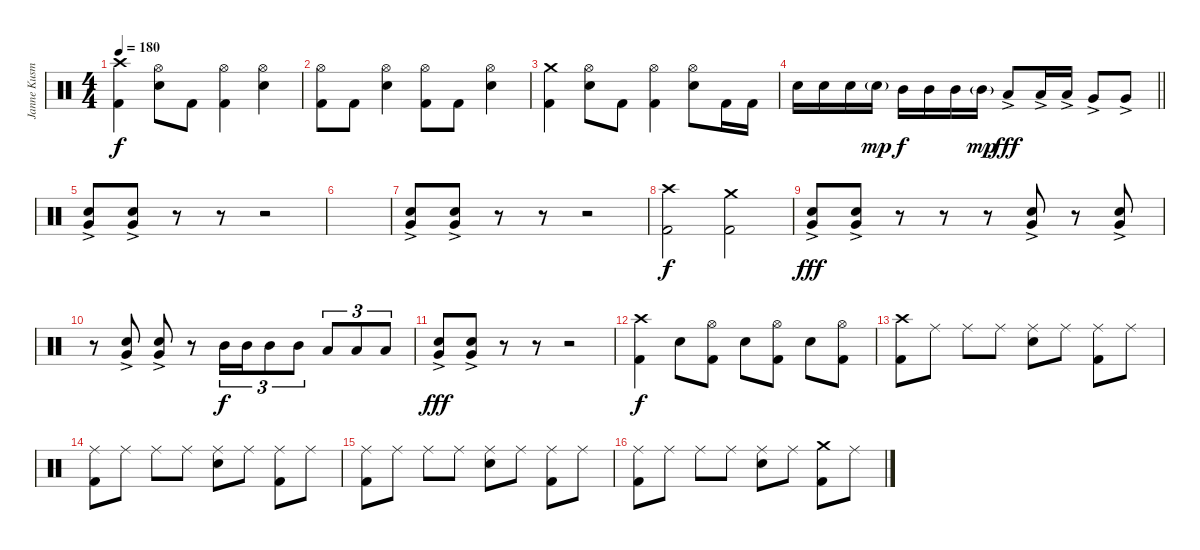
\track ("Janne Kusmin - Drums" "Janne Kusm") {instrument percussion}
\staff {score}
\articulation defaults
\ts (4 4)
\tempo 180
\clef neutral
\ks c
("Crash high (hit)" "Kick (hit) 2").4{dy f} ("Hi-Hat (open)" "Electric Snare (hit)").8 "Kick (hit) 2".8 ("Hi-Hat (open)" "Kick (hit) 2").4 ("Hi-Hat (open)" "Electric Snare (hit)").4 |
("Hi-Hat (open)" "Kick (hit) 2").8 "Kick (hit) 2".8 ("Hi-Hat (open)" "Electric Snare (hit)").4 ("Hi-Hat (open)" "Kick (hit) 2").8 "Kick (hit) 2".8 ("Hi-Hat (open)" "Electric Snare (hit)").4 |
("Crash medium (hit)" "Kick (hit) 2").4 ("Hi-Hat (open)" "Electric Snare (hit)").8 "Kick (hit) 2".8 ("Hi-Hat (open)" "Kick (hit) 2").4 ("Hi-Hat (open)" "Electric Snare (hit)").8 "Kick (hit) 2".16 "Kick (hit) 2".16 |
\barLineRight lightlight "Electric Snare (hit)".16 "Electric Snare (hit)".16 "Electric Snare (hit)".16 "Electric Snare (hit)"{g}.16{dy mp} "Mid Tom (hit)".16{dy f} "Mid Tom (hit)".16 "Mid Tom (hit)".16 "Mid Tom (hit)"{g}.16{dy mp} "Low Tom (hit)"{ac}.8{dy fff} "Low Tom (hit)"{ac}.16 "Low Tom (hit)"{ac}.16 "Very Low Tom (hit)"{ac}.8 "Very Low Tom (hit)"{ac}.8
|
\section ("" "")
("Very Low Tom (hit)"{ac} "Electric Snare (hit)").8 ("Very Low Tom (hit)"{ac} "Electric Snare (hit)").8 r.8 r.8 r.2 |
|
("Very Low Tom (hit)"{ac} "Electric Snare (hit)").8 ("Very Low Tom (hit)"{ac} "Electric Snare (hit)").8 r.8 r.8 r.2 |
("Crash high (hit)" "Kick (hit) 2").2{dy f} ("Crash medium (hit)" "Kick (hit) 2").2 |
("Very Low Tom (hit)"{ac} "Electric Snare (hit)").8{dy fff} ("Very Low Tom (hit)"{ac} "Electric Snare (hit)").8 r.8 r.8 r.8 ("Very Low Tom (hit)"{ac} "Electric Snare (hit)").8 r.8 ("Very Low Tom (hit)"{ac} "Electric Snare (hit)").8 |
r.8 ("Very Low Tom (hit)"{ac} "Electric Snare (hit)").8 ("Very Low Tom (hit)"{ac} "Electric Snare (hit)").8 r.8 "Mid Tom (hit)".16{tu (3 2) dy f} "Mid Tom (hit)".16{tu (3 2)} "Mid Tom (hit)".8{tu (3 2)} "Mid Tom (hit)".8{tu (3 2)} "Low Tom (hit)".8{tu (3 2)} "Low Tom (hit)".8{tu (3 2)} "Low Tom (hit)".8{tu (3 2)} |
("Very Low Tom (hit)"{ac} "Electric Snare (hit)").8{dy fff} ("Very Low Tom (hit)"{ac} "Electric Snare (hit)").8 r.8 r.8 r.2 |
("Crash high (hit)" "Kick (hit) 2").4{dy f} "Electric Snare (hit)".8 ("Hi-Hat (open)" "Kick (hit) 2").8 "Electric Snare (hit)".8 ("Hi-Hat (open)" "Kick (hit) 2").8 "Electric Snare (hit)".8 ("Hi-Hat (open)" "Kick (hit) 2").8 |
("Crash high (hit)" "Kick (hit) 2").8 "Ride (middle)".8 "Ride (middle)".8 "Ride (middle)".8 ("Ride (middle)" "Electric Snare (hit)").8 "Ride (middle)".8 ("Ride (middle)" "Kick (hit) 2").8 "Ride (middle)".8 |
("Ride (middle)" "Kick (hit) 2").8 "Ride (middle)".8 "Ride (middle)".8 "Ride (middle)".8 ("Ride (middle)" "Electric Snare (hit)").8 "Ride (middle)".8 ("Ride (middle)" "Kick (hit) 2").8 "Ride (middle)".8 |
("Ride (middle)" "Kick (hit) 2").8 "Ride (middle)".8 "Ride (middle)".8 "Ride (middle)".8 ("Ride (middle)" "Electric Snare (hit)").8 "Ride (middle)".8 ("Ride (middle)" "Kick (hit) 2").8 "Ride (middle)".8 |
("Ride (middle)" "Kick (hit) 2").8 "Ride (middle)".8 "Ride (middle)".8 "Ride (middle)".8 ("Ride (middle)" "Electric Snare (hit)").8 "Ride (middle)".8 ("Crash medium (hit)" "Kick (hit) 2").8 "Ride (middle)".8
